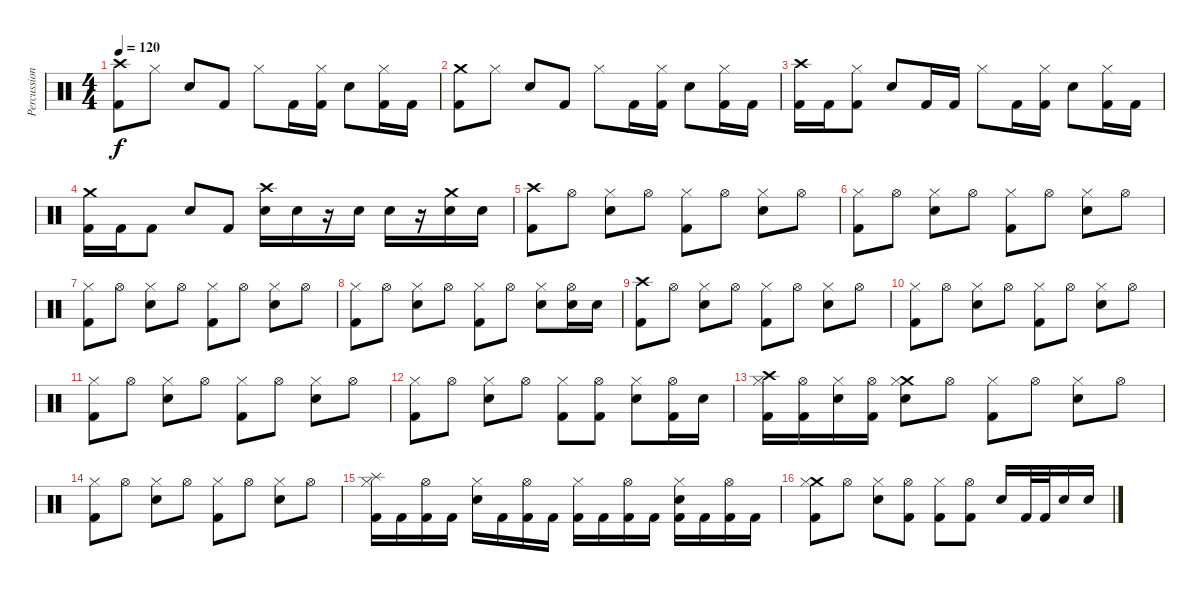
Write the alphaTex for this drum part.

\track ("Percussion" "Percussion") {instrument percussion}
\staff {score}
\articulation defaults
\ts (4 4)
\tempo 120
\clef neutral
\ks c
("Crash high (hit)" "Kick (hit) 2").8{dy f} "Hi-Hat (closed)".8 "Snare (hit) 2".8 "Kick (hit) 2".8 "Hi-Hat (closed)".8 "Kick (hit) 2".16 ("Hi-Hat (closed)" "Kick (hit) 2").16 "Snare (hit) 2".8 ("Hi-Hat (closed)" "Kick (hit) 2").16 "Kick (hit) 2".16 |
("Crash medium (hit)" "Kick (hit) 2").8 "Hi-Hat (closed)".8 "Snare (hit) 2".8 "Kick (hit) 2".8 "Hi-Hat (closed)".8 "Kick (hit) 2".16 ("Hi-Hat (closed)" "Kick (hit) 2").16 "Snare (hit) 2".8 ("Hi-Hat (closed)" "Kick (hit) 2").16 "Kick (hit) 2".16 |
("Crash high (hit)" "Kick (hit) 2").16 "Kick (hit) 2".16 ("Hi-Hat (closed)" "Kick (hit) 2").8 "Snare (hit) 2".8 "Kick (hit) 2".16 "Kick (hit) 2".16 "Hi-Hat (closed)".8 "Kick (hit) 2".16 ("Hi-Hat (closed)" "Kick (hit) 2").16 "Snare (hit) 2".8 ("Hi-Hat (closed)" "Kick (hit) 2").16 "Kick (hit) 2".16 |
("Crash medium (hit)" "Kick (hit) 2").16 "Kick (hit) 2".16 "Kick (hit) 2".8 "Snare (hit) 2".8 "Kick (hit) 2".8 ("Crash high (hit)" "Snare (hit) 2").16 "Snare (hit) 2".16 r.16 "Snare (hit) 2".16 "Snare (hit) 2".16 r.16 ("Crash medium (hit)" "Snare (hit) 2").16 "Snare (hit) 2".16 |
("Crash high (hit)" "Kick (hit) 2").8 "Hi-Hat (open)".8 ("Hi-Hat (closed)" "Snare (hit) 2").8 "Hi-Hat (open)".8 ("Hi-Hat (closed)" "Kick (hit) 2").8 "Hi-Hat (open)".8 ("Hi-Hat (closed)" "Snare (hit) 2").8 "Hi-Hat (open)".8 |
("Hi-Hat (closed)" "Kick (hit) 2").8 "Hi-Hat (open)".8 ("Hi-Hat (closed)" "Snare (hit) 2").8 "Hi-Hat (open)".8 ("Hi-Hat (closed)" "Kick (hit) 2").8 "Hi-Hat (open)".8 ("Hi-Hat (closed)" "Snare (hit) 2").8 "Hi-Hat (open)".8 |
("Hi-Hat (closed)" "Kick (hit) 2").8 "Hi-Hat (open)".8 ("Hi-Hat (closed)" "Snare (hit) 2").8 "Hi-Hat (open)".8 ("Hi-Hat (closed)" "Kick (hit) 2").8 "Hi-Hat (open)".8 ("Hi-Hat (closed)" "Snare (hit) 2").8 "Hi-Hat (open)".8 |
("Hi-Hat (closed)" "Kick (hit) 2").8 "Hi-Hat (open)".8 ("Hi-Hat (closed)" "Snare (hit) 2").8 "Hi-Hat (open)".8 ("Hi-Hat (closed)" "Kick (hit) 2").8 "Hi-Hat (open)".8 ("Hi-Hat (closed)" "Snare (hit) 2").8 ("Hi-Hat (open)" "Snare (hit) 2").16 "Snare (hit) 2".16 |
("Crash high (hit)" "Kick (hit) 2").8 "Hi-Hat (open)".8 ("Hi-Hat (closed)" "Snare (hit) 2").8 "Hi-Hat (open)".8 ("Hi-Hat (closed)" "Kick (hit) 2").8 "Hi-Hat (open)".8 ("Hi-Hat (closed)" "Snare (hit) 2").8 "Hi-Hat (open)".8 |
("Hi-Hat (closed)" "Kick (hit) 2").8 "Hi-Hat (open)".8 ("Hi-Hat (closed)" "Snare (hit) 2").8 "Hi-Hat (open)".8 ("Hi-Hat (closed)" "Kick (hit) 2").8 "Hi-Hat (open)".8 ("Hi-Hat (closed)" "Snare (hit) 2").8 "Hi-Hat (open)".8 |
("Hi-Hat (closed)" "Kick (hit) 2").8 "Hi-Hat (open)".8 ("Hi-Hat (closed)" "Snare (hit) 2").8 "Hi-Hat (open)".8 ("Hi-Hat (closed)" "Kick (hit) 2").8 "Hi-Hat (open)".8 ("Hi-Hat (closed)" "Snare (hit) 2").8 "Hi-Hat (open)".8 |
("Hi-Hat (closed)" "Kick (hit) 2").8 "Hi-Hat (open)".8 ("Hi-Hat (closed)" "Snare (hit) 2").8 "Hi-Hat (open)".8 ("Hi-Hat (closed)" "Kick (hit) 2").8 ("Hi-Hat (open)" "Kick (hit) 2").8 ("Hi-Hat (closed)" "Snare (hit) 2").8 ("Hi-Hat (open)" "Kick (hit) 2").16 "Snare (hit) 2".16 |
("Crash high (hit)" "Hi-Hat (closed)" "Kick (hit) 2").16 ("Hi-Hat (open)" "Kick (hit) 2").16 ("Hi-Hat (closed)" "Snare (hit) 2").16 ("Hi-Hat (open)" "Kick (hit) 2").16 ("Crash medium (hit)" "Hi-Hat (closed)" "Snare (hit) 2").8 "Hi-Hat (open)".8 ("Hi-Hat (closed)" "Kick (hit) 2").8 "Hi-Hat (open)".8 ("Hi-Hat (closed)" "Snare (hit) 2").8 "Hi-Hat (open)".8 |
("Hi-Hat (closed)" "Kick (hit) 2").8 "Hi-Hat (open)".8 ("Hi-Hat (closed)" "Snare (hit) 2").8 "Hi-Hat (open)".8 ("Hi-Hat (closed)" "Kick (hit) 2").8 "Hi-Hat (open)".8 ("Hi-Hat (closed)" "Snare (hit) 2").8 "Hi-Hat (open)".8 |
("Splash (hit)" "Hi-Hat (closed)" "Kick (hit) 2").16 "Kick (hit) 2".16 ("Hi-Hat (open)" "Kick (hit) 2").16 "Kick (hit) 2".16 ("Hi-Hat (closed)" "Snare (hit) 2").16 "Kick (hit) 2".16 ("Hi-Hat (open)" "Kick (hit) 2").16 "Kick (hit) 2".16 ("Hi-Hat (closed)" "Kick (hit) 2").16 "Kick (hit) 2".16 ("Hi-Hat (open)" "Kick (hit) 2").16 "Kick (hit) 2".16 ("Hi-Hat (closed)" "Snare (hit) 2" "Kick (hit) 2").16 "Kick (hit) 2".16 ("Hi-Hat (open)" "Kick (hit) 2").16 "Kick (hit) 2".16 |
("Crash medium (hit)" "Hi-Hat (closed)" "Kick (hit) 2").8 "Hi-Hat (open)".8 ("Hi-Hat (closed)" "Snare (hit) 2").8 ("Hi-Hat (open)" "Kick (hit) 2").8 ("Hi-Hat (closed)" "Kick (hit) 2").8 ("Hi-Hat (open)" "Kick (hit) 2").8 "Snare (hit) 2".16 "Kick (hit) 2".32 "Kick (hit) 2".32 "Snare (hit) 2".16 "Snare (hit) 2".16
